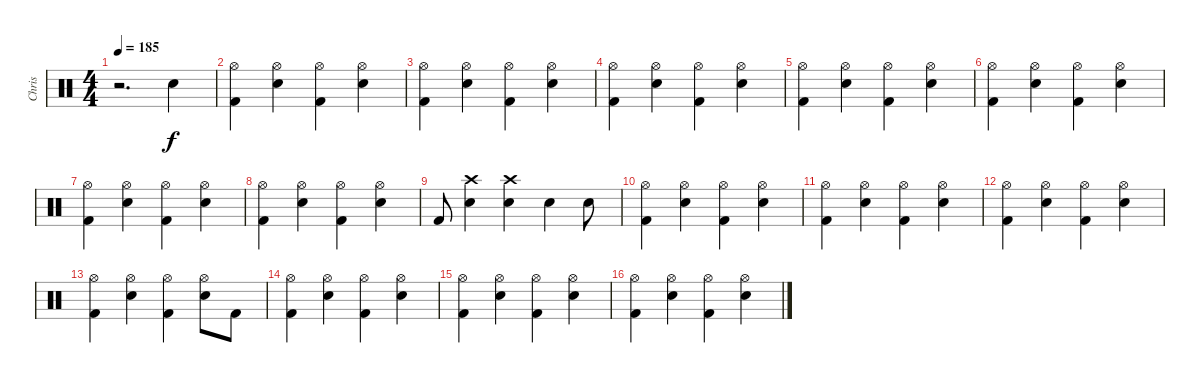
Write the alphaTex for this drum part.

\track ("Chris" "Chris") {instrument percussion}
\staff {score}
\articulation defaults
\ts (4 4)
\tempo 185
\clef neutral
\ks c
r.2{d dy f} "Snare (hit) 2".4 |
("Hi-Hat (open)" "Kick (hit) 2").4 ("Snare (hit) 2" "Hi-Hat (open)").4 ("Hi-Hat (open)" "Kick (hit) 2").4 ("Snare (hit) 2" "Hi-Hat (open)").4 |
("Hi-Hat (open)" "Kick (hit) 2").4 ("Snare (hit) 2" "Hi-Hat (open)").4 ("Hi-Hat (open)" "Kick (hit) 2").4 ("Snare (hit) 2" "Hi-Hat (open)").4 |
("Hi-Hat (open)" "Kick (hit) 2").4 ("Snare (hit) 2" "Hi-Hat (open)").4 ("Hi-Hat (open)" "Kick (hit) 2").4 ("Snare (hit) 2" "Hi-Hat (open)").4 |
("Hi-Hat (open)" "Kick (hit) 2").4 ("Snare (hit) 2" "Hi-Hat (open)").4 ("Hi-Hat (open)" "Kick (hit) 2").4 ("Snare (hit) 2" "Hi-Hat (open)").4 |
("Hi-Hat (open)" "Kick (hit) 2").4 ("Snare (hit) 2" "Hi-Hat (open)").4 ("Hi-Hat (open)" "Kick (hit) 2").4 ("Snare (hit) 2" "Hi-Hat (open)").4 |
("Hi-Hat (open)" "Kick (hit) 2").4 ("Snare (hit) 2" "Hi-Hat (open)").4 ("Hi-Hat (open)" "Kick (hit) 2").4 ("Snare (hit) 2" "Hi-Hat (open)").4 |
("Hi-Hat (open)" "Kick (hit) 2").4 ("Snare (hit) 2" "Hi-Hat (open)").4 ("Hi-Hat (open)" "Kick (hit) 2").4 ("Snare (hit) 2" "Hi-Hat (open)").4 |
"Kick (hit) 2".8 ("Snare (hit) 2" "Crash high (hit)").4 ("Snare (hit) 2" "Crash high (hit)").4 "Snare (hit) 2".4 "Snare (hit) 2".8 |
("Hi-Hat (open)" "Kick (hit) 2").4 ("Snare (hit) 2" "Hi-Hat (open)").4 ("Hi-Hat (open)" "Kick (hit) 2").4 ("Snare (hit) 2" "Hi-Hat (open)").4 |
("Hi-Hat (open)" "Kick (hit) 2").4 ("Snare (hit) 2" "Hi-Hat (open)").4 ("Hi-Hat (open)" "Kick (hit) 2").4 ("Snare (hit) 2" "Hi-Hat (open)").4 |
("Hi-Hat (open)" "Kick (hit) 2").4 ("Snare (hit) 2" "Hi-Hat (open)").4 ("Hi-Hat (open)" "Kick (hit) 2").4 ("Snare (hit) 2" "Hi-Hat (open)").4 |
("Hi-Hat (open)" "Kick (hit) 2").4 ("Snare (hit) 2" "Hi-Hat (open)").4 ("Hi-Hat (open)" "Kick (hit) 2").4 ("Snare (hit) 2" "Hi-Hat (open)").8 "Kick (hit) 2".8 |
("Hi-Hat (open)" "Kick (hit) 2").4 ("Snare (hit) 2" "Hi-Hat (open)").4 ("Hi-Hat (open)" "Kick (hit) 2").4 ("Snare (hit) 2" "Hi-Hat (open)").4 |
("Hi-Hat (open)" "Kick (hit) 2").4 ("Snare (hit) 2" "Hi-Hat (open)").4 ("Hi-Hat (open)" "Kick (hit) 2").4 ("Snare (hit) 2" "Hi-Hat (open)").4 |
("Hi-Hat (open)" "Kick (hit) 2").4 ("Snare (hit) 2" "Hi-Hat (open)").4 ("Hi-Hat (open)" "Kick (hit) 2").4 ("Snare (hit) 2" "Hi-Hat (open)").4
